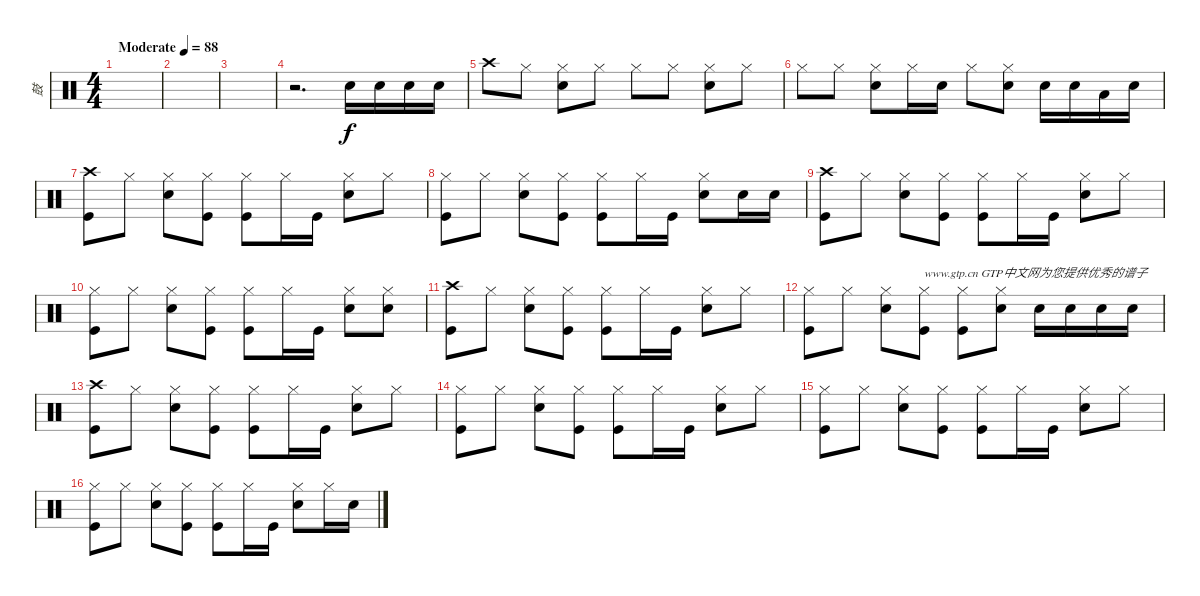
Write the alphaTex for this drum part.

\track ("鼓" "鼓") {instrument percussion}
\staff {score}
\articulation defaults
\ts (4 4)
\tempo (88 "Moderate")
\clef neutral
\ks c
|
|
|
r.2{d} "Snare (hit) 2".16 "Snare (hit) 2".16 "Snare (hit) 2".16 "Snare (hit) 2".16 |
"Crash high (hit)".8 "Hi-Hat (closed)".8 ("Hi-Hat (closed)" "Snare (hit) 2").8 "Hi-Hat (closed)".8 "Hi-Hat (closed)".8 "Hi-Hat (closed)".8 ("Hi-Hat (closed)" "Snare (hit) 2").8 "Hi-Hat (closed)".8 |
"Hi-Hat (closed)".8 "Hi-Hat (closed)".8 ("Hi-Hat (closed)" "Snare (hit) 2").8 "Hi-Hat (closed)".16 "Snare (hit) 2".16 "Hi-Hat (closed)".8 ("Hi-Hat (closed)" "Snare (hit) 2").8 "Snare (hit) 2".16 "Snare (hit) 2".16 "Low Tom (hit)".16 "Snare (hit) 2".16 |
("Crash high (hit)" "Kick (hit)").8 "Hi-Hat (closed)".8 ("Hi-Hat (closed)" "Snare (hit) 2").8 ("Hi-Hat (closed)" "Kick (hit)").8 ("Hi-Hat (closed)" "Kick (hit)").8 "Hi-Hat (closed)".16 "Kick (hit)".16 ("Hi-Hat (closed)" "Snare (hit) 2").8 "Hi-Hat (closed)".8 |
("Hi-Hat (closed)" "Kick (hit)").8 "Hi-Hat (closed)".8 ("Hi-Hat (closed)" "Snare (hit) 2").8 ("Hi-Hat (closed)" "Kick (hit)").8 ("Hi-Hat (closed)" "Kick (hit)").8 "Hi-Hat (closed)".16 "Kick (hit)".16 ("Hi-Hat (closed)" "Snare (hit) 2").8 "Snare (hit) 2".16 "Snare (hit) 2".16 |
("Crash high (hit)" "Kick (hit)").8 "Hi-Hat (closed)".8 ("Hi-Hat (closed)" "Snare (hit) 2").8 ("Hi-Hat (closed)" "Kick (hit)").8 ("Hi-Hat (closed)" "Kick (hit)").8 "Hi-Hat (closed)".16 "Kick (hit)".16 ("Hi-Hat (closed)" "Snare (hit) 2").8 "Hi-Hat (closed)".8 |
("Hi-Hat (closed)" "Kick (hit)").8 "Hi-Hat (closed)".8 ("Hi-Hat (closed)" "Snare (hit) 2").8 ("Hi-Hat (closed)" "Kick (hit)").8 ("Hi-Hat (closed)" "Kick (hit)").8 "Hi-Hat (closed)".16 "Kick (hit)".16 ("Hi-Hat (closed)" "Snare (hit) 2").8 ("Hi-Hat (closed)" "Snare (hit) 2").8 |
("Crash high (hit)" "Kick (hit)").8 "Hi-Hat (closed)".8 ("Hi-Hat (closed)" "Snare (hit) 2").8 ("Hi-Hat (closed)" "Kick (hit)").8 ("Hi-Hat (closed)" "Kick (hit)").8 "Hi-Hat (closed)".16 "Kick (hit)".16 ("Hi-Hat (closed)" "Snare (hit) 2").8 "Hi-Hat (closed)".8 |
("Hi-Hat (closed)" "Kick (hit)").8 "Hi-Hat (closed)".8 ("Hi-Hat (closed)" "Snare (hit) 2").8 ("Hi-Hat (closed)" "Kick (hit)").8{txt "www.gtp.cn GTP中文网为您提供优秀的谱子"} ("Hi-Hat (closed)" "Kick (hit)").8 ("Hi-Hat (closed)" "Snare (hit) 2").8 "Snare (hit) 2".16 "Snare (hit) 2".16 "Snare (hit) 2".16 "Snare (hit) 2".16 |
("Crash high (hit)" "Kick (hit)").8 "Hi-Hat (closed)".8 ("Hi-Hat (closed)" "Snare (hit) 2").8 ("Hi-Hat (closed)" "Kick (hit)").8 ("Hi-Hat (closed)" "Kick (hit)").8 "Hi-Hat (closed)".16 "Kick (hit)".16 ("Hi-Hat (closed)" "Snare (hit) 2").8 "Hi-Hat (closed)".8 |
("Hi-Hat (closed)" "Kick (hit)").8 "Hi-Hat (closed)".8 ("Hi-Hat (closed)" "Snare (hit) 2").8 ("Hi-Hat (closed)" "Kick (hit)").8 ("Hi-Hat (closed)" "Kick (hit)").8 "Hi-Hat (closed)".16 "Kick (hit)".16 ("Hi-Hat (closed)" "Snare (hit) 2").8 "Hi-Hat (closed)".8 |
("Hi-Hat (closed)" "Kick (hit)").8 "Hi-Hat (closed)".8 ("Hi-Hat (closed)" "Snare (hit) 2").8 ("Hi-Hat (closed)" "Kick (hit)").8 ("Hi-Hat (closed)" "Kick (hit)").8 "Hi-Hat (closed)".16 "Kick (hit)".16 ("Hi-Hat (closed)" "Snare (hit) 2").8 "Hi-Hat (closed)".8 |
("Hi-Hat (closed)" "Kick (hit)").8 "Hi-Hat (closed)".8 ("Hi-Hat (closed)" "Snare (hit) 2").8 ("Hi-Hat (closed)" "Kick (hit)").8 ("Hi-Hat (closed)" "Kick (hit)").8 "Hi-Hat (closed)".16 "Kick (hit)".16 ("Hi-Hat (closed)" "Snare (hit) 2").8 "Hi-Hat (closed)".16 "Snare (hit) 2".16
